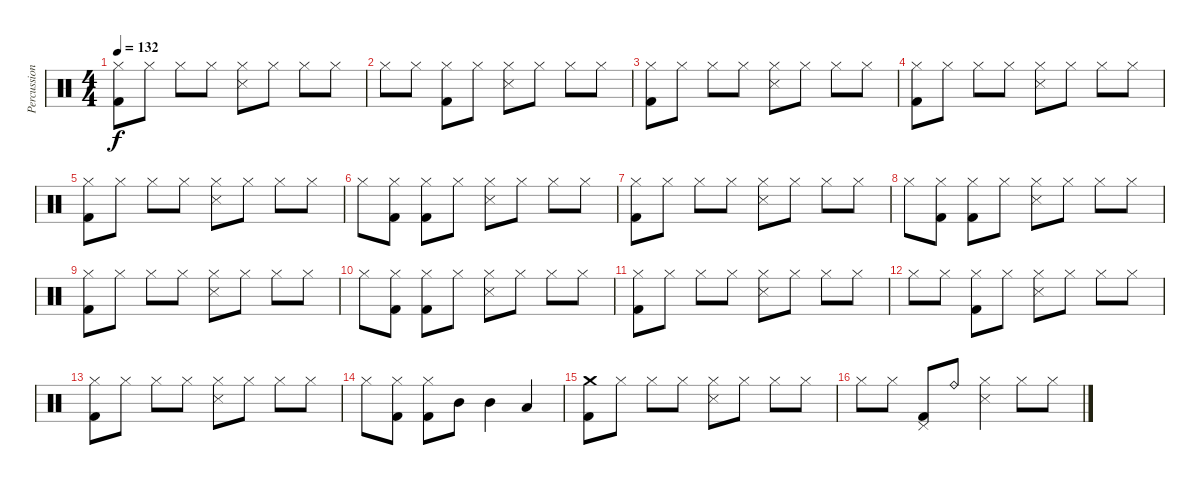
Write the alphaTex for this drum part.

\track ("Percussion" "Percussion") {instrument percussion}
\staff {score}
\articulation defaults
\ts (4 4)
\tempo 132
\clef neutral
\ks c
("Hi-Hat (closed)" "Kick (hit) 2").8{dy f} "Hi-Hat (closed)".8 "Hi-Hat (closed)".8 "Hi-Hat (closed)".8 ("Hi-Hat (closed)" "Snare (side stick) 3").8 "Hi-Hat (closed)".8 "Hi-Hat (closed)".8 "Hi-Hat (closed)".8 |
"Hi-Hat (closed)".8 "Hi-Hat (closed)".8 ("Hi-Hat (closed)" "Kick (hit) 2").8 "Hi-Hat (closed)".8 ("Hi-Hat (closed)" "Snare (side stick) 3").8 "Hi-Hat (closed)".8 "Hi-Hat (closed)".8 "Hi-Hat (closed)".8 |
("Hi-Hat (closed)" "Kick (hit) 2").8 "Hi-Hat (closed)".8 "Hi-Hat (closed)".8 "Hi-Hat (closed)".8 ("Hi-Hat (closed)" "Snare (side stick) 3").8 "Hi-Hat (closed)".8 "Hi-Hat (closed)".8 "Hi-Hat (closed)".8 |
("Hi-Hat (closed)" "Kick (hit) 2").8 "Hi-Hat (closed)".8 "Hi-Hat (closed)".8 "Hi-Hat (closed)".8 ("Hi-Hat (closed)" "Snare (side stick) 3").8 "Hi-Hat (closed)".8 "Hi-Hat (closed)".8 "Hi-Hat (closed)".8 |
("Hi-Hat (closed)" "Kick (hit) 2").8 "Hi-Hat (closed)".8 "Hi-Hat (closed)".8 "Hi-Hat (closed)".8 ("Hi-Hat (closed)" "Snare (side stick) 3").8 "Hi-Hat (closed)".8 "Hi-Hat (closed)".8 "Hi-Hat (closed)".8 |
"Hi-Hat (closed)".8 ("Hi-Hat (closed)" "Kick (hit) 2").8 ("Hi-Hat (closed)" "Kick (hit) 2").8 "Hi-Hat (closed)".8 ("Hi-Hat (closed)" "Snare (side stick) 3").8 "Hi-Hat (closed)".8 "Hi-Hat (closed)".8 "Hi-Hat (closed)".8 |
("Hi-Hat (closed)" "Kick (hit) 2").8 "Hi-Hat (closed)".8 "Hi-Hat (closed)".8 "Hi-Hat (closed)".8 ("Hi-Hat (closed)" "Snare (side stick) 3").8 "Hi-Hat (closed)".8 "Hi-Hat (closed)".8 "Hi-Hat (closed)".8 |
"Hi-Hat (closed)".8 ("Hi-Hat (closed)" "Kick (hit) 2").8 ("Hi-Hat (closed)" "Kick (hit) 2").8 "Hi-Hat (closed)".8 ("Hi-Hat (closed)" "Snare (side stick) 3").8 "Hi-Hat (closed)".8 "Hi-Hat (closed)".8 "Hi-Hat (closed)".8 |
("Hi-Hat (closed)" "Kick (hit) 2").8 "Hi-Hat (closed)".8 "Hi-Hat (closed)".8 "Hi-Hat (closed)".8 ("Hi-Hat (closed)" "Snare (side stick) 3").8 "Hi-Hat (closed)".8 "Hi-Hat (closed)".8 "Hi-Hat (closed)".8 |
"Hi-Hat (closed)".8 ("Hi-Hat (closed)" "Kick (hit) 2").8 ("Hi-Hat (closed)" "Kick (hit) 2").8 "Hi-Hat (closed)".8 ("Hi-Hat (closed)" "Snare (side stick) 3").8 "Hi-Hat (closed)".8 "Hi-Hat (closed)".8 "Hi-Hat (closed)".8 |
("Hi-Hat (closed)" "Kick (hit) 2").8 "Hi-Hat (closed)".8 "Hi-Hat (closed)".8 "Hi-Hat (closed)".8 ("Hi-Hat (closed)" "Snare (side stick) 3").8 "Hi-Hat (closed)".8 "Hi-Hat (closed)".8 "Hi-Hat (closed)".8 |
"Hi-Hat (closed)".8 "Hi-Hat (closed)".8 ("Hi-Hat (closed)" "Kick (hit) 2").8 "Hi-Hat (closed)".8 ("Hi-Hat (closed)" "Snare (side stick) 3").8 "Hi-Hat (closed)".8 "Hi-Hat (closed)".8 "Hi-Hat (closed)".8 |
("Hi-Hat (closed)" "Kick (hit) 2").8 "Hi-Hat (closed)".8 "Hi-Hat (closed)".8 "Hi-Hat (closed)".8 ("Hi-Hat (closed)" "Snare (side stick) 3").8 "Hi-Hat (closed)".8 "Hi-Hat (closed)".8 "Hi-Hat (closed)".8 |
"Hi-Hat (closed)".8 ("Hi-Hat (closed)" "Kick (hit) 2").8 ("Hi-Hat (closed)" "Kick (hit) 2").8 "Mid Tom (hit)".8 "Mid Tom (hit)".4 "Low Tom (hit)".4 |
("Crash medium (hit)" "Kick (hit) 2").8 "Hi-Hat (closed)".8 "Hi-Hat (closed)".8 "Hi-Hat (closed)".8 ("Hi-Hat (closed)" "Snare (side stick) 3").8 "Hi-Hat (closed)".8 "Hi-Hat (closed)".8 "Hi-Hat (closed)".8 |
"Hi-Hat (closed)".8 "Hi-Hat (closed)".8 ("Pedal Hi-Hat (hit)" "Kick (hit) 2").8 "Ride (bell)".8 ("Hi-Hat (closed)" "Snare (side stick) 3").4 "Hi-Hat (closed)".8 "Hi-Hat (closed)".8
